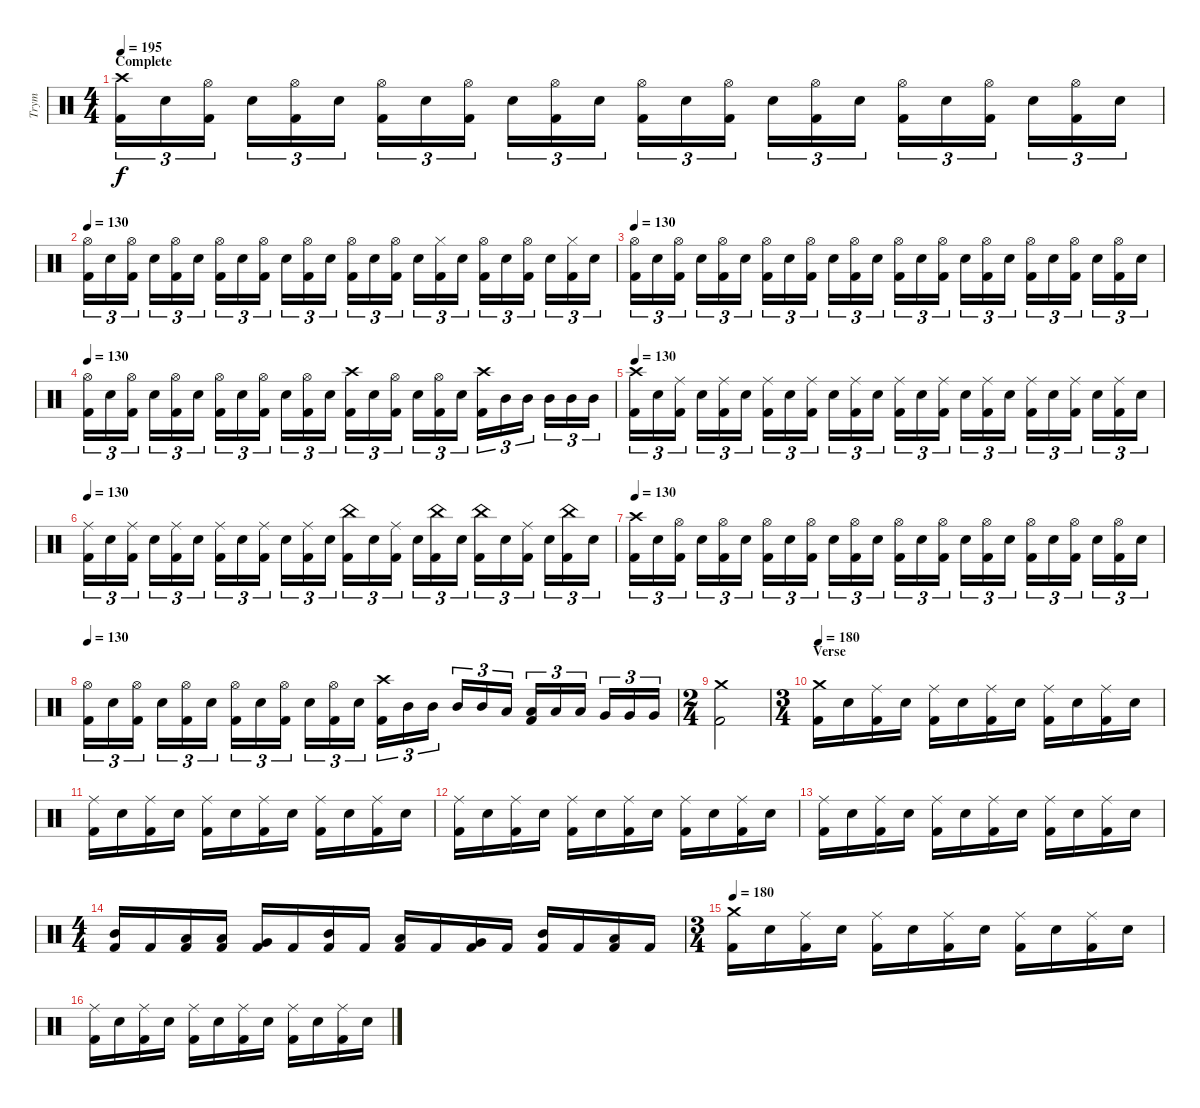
\track ("Trym" "Trym") {instrument percussion}
\staff {score}
\articulation defaults
\ts (4 4)
\section ("" "Complete")
\tempo 195
\tempo 130
\tempo 195
\clef neutral
\ks c
("Kick (hit) 2" "Crash high (hit)").16{tu (3 2) dy f} "Electric Snare (hit)".16{tu (3 2)} ("Kick (hit) 2" "Hi-Hat (open)").16{tu (3 2)} "Electric Snare (hit)".16{tu (3 2)} ("Kick (hit) 2" "Hi-Hat (open)").16{tu (3 2)} "Electric Snare (hit)".16{tu (3 2)} ("Kick (hit) 2" "Hi-Hat (open)").16{tu (3 2)} "Electric Snare (hit)".16{tu (3 2)} ("Kick (hit) 2" "Hi-Hat (open)").16{tu (3 2)} "Electric Snare (hit)".16{tu (3 2)} ("Kick (hit) 2" "Hi-Hat (open)").16{tu (3 2)} "Electric Snare (hit)".16{tu (3 2)} ("Kick (hit) 2" "Hi-Hat (open)").16{tu (3 2)} "Electric Snare (hit)".16{tu (3 2)} ("Kick (hit) 2" "Hi-Hat (open)").16{tu (3 2)} "Electric Snare (hit)".16{tu (3 2)} ("Kick (hit) 2" "Hi-Hat (open)").16{tu (3 2)} "Electric Snare (hit)".16{tu (3 2)} ("Kick (hit) 2" "Hi-Hat (open)").16{tu (3 2)} "Electric Snare (hit)".16{tu (3 2)} ("Kick (hit) 2" "Hi-Hat (open)").16{tu (3 2)} "Electric Snare (hit)".16{tu (3 2)} ("Kick (hit) 2" "Hi-Hat (open)").16{tu (3 2)} "Electric Snare (hit)".16{tu (3 2)} |
\tempo 130
("Kick (hit) 2" "Hi-Hat (open)").16{tu (3 2)} "Electric Snare (hit)".16{tu (3 2)} ("Kick (hit) 2" "Hi-Hat (open)").16{tu (3 2)} "Electric Snare (hit)".16{tu (3 2)} ("Kick (hit) 2" "Hi-Hat (open)").16{tu (3 2)} "Electric Snare (hit)".16{tu (3 2)} ("Kick (hit) 2" "Hi-Hat (open)").16{tu (3 2)} "Electric Snare (hit)".16{tu (3 2)} ("Kick (hit) 2" "Hi-Hat (open)").16{tu (3 2)} "Electric Snare (hit)".16{tu (3 2)} ("Kick (hit) 2" "Hi-Hat (open)").16{tu (3 2)} "Electric Snare (hit)".16{tu (3 2)} ("Kick (hit) 2" "Hi-Hat (open)").16{tu (3 2)} "Electric Snare (hit)".16{tu (3 2)} ("Kick (hit) 2" "Hi-Hat (open)").16{tu (3 2)} "Electric Snare (hit)".16{tu (3 2)} ("Kick (hit) 2" "Hi-Hat (closed)").16{tu (3 2)} "Electric Snare (hit)".16{tu (3 2)} ("Kick (hit) 2" "Hi-Hat (open)").16{tu (3 2)} "Electric Snare (hit)".16{tu (3 2)} ("Kick (hit) 2" "Hi-Hat (open)").16{tu (3 2)} "Electric Snare (hit)".16{tu (3 2)} ("Kick (hit) 2" "Hi-Hat (closed)").16{tu (3 2)} "Electric Snare (hit)".16{tu (3 2)} |
\tempo 130
("Kick (hit) 2" "Hi-Hat (open)").16{tu (3 2)} "Electric Snare (hit)".16{tu (3 2)} ("Kick (hit) 2" "Hi-Hat (open)").16{tu (3 2)} "Electric Snare (hit)".16{tu (3 2)} ("Kick (hit) 2" "Hi-Hat (open)").16{tu (3 2)} "Electric Snare (hit)".16{tu (3 2)} ("Kick (hit) 2" "Hi-Hat (open)").16{tu (3 2)} "Electric Snare (hit)".16{tu (3 2)} ("Kick (hit) 2" "Hi-Hat (open)").16{tu (3 2)} "Electric Snare (hit)".16{tu (3 2)} ("Kick (hit) 2" "Hi-Hat (open)").16{tu (3 2)} "Electric Snare (hit)".16{tu (3 2)} ("Kick (hit) 2" "Hi-Hat (open)").16{tu (3 2)} "Electric Snare (hit)".16{tu (3 2)} ("Kick (hit) 2" "Hi-Hat (open)").16{tu (3 2)} "Electric Snare (hit)".16{tu (3 2)} ("Kick (hit) 2" "Hi-Hat (open)").16{tu (3 2)} "Electric Snare (hit)".16{tu (3 2)} ("Kick (hit) 2" "Hi-Hat (open)").16{tu (3 2)} "Electric Snare (hit)".16{tu (3 2)} ("Kick (hit) 2" "Hi-Hat (open)").16{tu (3 2)} "Electric Snare (hit)".16{tu (3 2)} ("Kick (hit) 2" "Hi-Hat (open)").16{tu (3 2)} "Electric Snare (hit)".16{tu (3 2)} |
\tempo 130
("Kick (hit) 2" "Hi-Hat (open)").16{tu (3 2)} "Electric Snare (hit)".16{tu (3 2)} ("Kick (hit) 2" "Hi-Hat (open)").16{tu (3 2)} "Electric Snare (hit)".16{tu (3 2)} ("Kick (hit) 2" "Hi-Hat (open)").16{tu (3 2)} "Electric Snare (hit)".16{tu (3 2)} ("Kick (hit) 2" "Hi-Hat (open)").16{tu (3 2)} "Electric Snare (hit)".16{tu (3 2)} ("Kick (hit) 2" "Hi-Hat (open)").16{tu (3 2)} "Electric Snare (hit)".16{tu (3 2)} ("Kick (hit) 2" "Hi-Hat (open)").16{tu (3 2)} "Electric Snare (hit)".16{tu (3 2)} ("Kick (hit) 2" "Crash high (hit)").16{tu (3 2)} "Electric Snare (hit)".16{tu (3 2)} ("Kick (hit) 2" "Hi-Hat (open)").16{tu (3 2)} "Electric Snare (hit)".16{tu (3 2)} ("Kick (hit) 2" "Hi-Hat (open)").16{tu (3 2)} "Electric Snare (hit)".16{tu (3 2)} ("Kick (hit) 2" "Crash high (hit)").16{tu (3 2)} "Mid Tom (hit)".16{tu (3 2)} "Mid Tom (hit)".16{tu (3 2)} "Mid Tom (hit)".16{tu (3 2)} "Mid Tom (hit)".16{tu (3 2)} "Mid Tom (hit)".16{tu (3 2)} |
\tempo 130
("Kick (hit) 2" "Crash high (hit)").16{tu (3 2)} "Electric Snare (hit)".16{tu (3 2)} ("Kick (hit) 2" "Ride (middle)").16{tu (3 2)} "Electric Snare (hit)".16{tu (3 2)} ("Kick (hit) 2" "Ride (middle)").16{tu (3 2)} "Electric Snare (hit)".16{tu (3 2)} ("Kick (hit) 2" "Ride (middle)").16{tu (3 2)} "Electric Snare (hit)".16{tu (3 2)} ("Kick (hit) 2" "Ride (middle)").16{tu (3 2)} "Electric Snare (hit)".16{tu (3 2)} ("Kick (hit) 2" "Ride (middle)").16{tu (3 2)} "Electric Snare (hit)".16{tu (3 2)} ("Kick (hit) 2" "Ride (middle)").16{tu (3 2)} "Electric Snare (hit)".16{tu (3 2)} ("Kick (hit) 2" "Ride (middle)").16{tu (3 2)} "Electric Snare (hit)".16{tu (3 2)} ("Kick (hit) 2" "Ride (middle)").16{tu (3 2)} "Electric Snare (hit)".16{tu (3 2)} ("Kick (hit) 2" "Ride (middle)").16{tu (3 2)} "Electric Snare (hit)".16{tu (3 2)} ("Kick (hit) 2" "Ride (middle)").16{tu (3 2)} "Electric Snare (hit)".16{tu (3 2)} ("Kick (hit) 2" "Ride (middle)").16{tu (3 2)} "Electric Snare (hit)".16{tu (3 2)} |
\tempo 130
("Kick (hit) 2" "Ride (middle)").16{tu (3 2)} "Electric Snare (hit)".16{tu (3 2)} ("Kick (hit) 2" "Ride (middle)").16{tu (3 2)} "Electric Snare (hit)".16{tu (3 2)} ("Kick (hit) 2" "Ride (middle)").16{tu (3 2)} "Electric Snare (hit)".16{tu (3 2)} ("Kick (hit) 2" "Ride (middle)").16{tu (3 2)} "Electric Snare (hit)".16{tu (3 2)} ("Kick (hit) 2" "Ride (middle)").16{tu (3 2)} "Electric Snare (hit)".16{tu (3 2)} ("Kick (hit) 2" "Ride (middle)").16{tu (3 2)} "Electric Snare (hit)".16{tu (3 2)} ("Kick (hit) 2" "China (hit)").16{tu (3 2)} "Electric Snare (hit)".16{tu (3 2)} ("Kick (hit) 2" "Ride (middle)").16{tu (3 2)} "Electric Snare (hit)".16{tu (3 2)} ("Kick (hit) 2" "China (hit)").16{tu (3 2)} "Electric Snare (hit)".16{tu (3 2)} ("Kick (hit) 2" "China (hit)").16{tu (3 2)} "Electric Snare (hit)".16{tu (3 2)} ("Kick (hit) 2" "Ride (middle)").16{tu (3 2)} "Electric Snare (hit)".16{tu (3 2)} ("Kick (hit) 2" "China (hit)").16{tu (3 2)} "Electric Snare (hit)".16{tu (3 2)} |
\tempo 130
("Kick (hit) 2" "Crash high (hit)").16{tu (3 2)} "Electric Snare (hit)".16{tu (3 2)} ("Kick (hit) 2" "Hi-Hat (open)").16{tu (3 2)} "Electric Snare (hit)".16{tu (3 2)} ("Kick (hit) 2" "Hi-Hat (open)").16{tu (3 2)} "Electric Snare (hit)".16{tu (3 2)} ("Kick (hit) 2" "Hi-Hat (open)").16{tu (3 2)} "Electric Snare (hit)".16{tu (3 2)} ("Kick (hit) 2" "Hi-Hat (open)").16{tu (3 2)} "Electric Snare (hit)".16{tu (3 2)} ("Kick (hit) 2" "Hi-Hat (open)").16{tu (3 2)} "Electric Snare (hit)".16{tu (3 2)} ("Kick (hit) 2" "Hi-Hat (open)").16{tu (3 2)} "Electric Snare (hit)".16{tu (3 2)} ("Kick (hit) 2" "Hi-Hat (open)").16{tu (3 2)} "Electric Snare (hit)".16{tu (3 2)} ("Kick (hit) 2" "Hi-Hat (open)").16{tu (3 2)} "Electric Snare (hit)".16{tu (3 2)} ("Kick (hit) 2" "Hi-Hat (open)").16{tu (3 2)} "Electric Snare (hit)".16{tu (3 2)} ("Kick (hit) 2" "Hi-Hat (open)").16{tu (3 2)} "Electric Snare (hit)".16{tu (3 2)} ("Kick (hit) 2" "Hi-Hat (open)").16{tu (3 2)} "Electric Snare (hit)".16{tu (3 2)} |
\tempo 130
("Kick (hit) 2" "Hi-Hat (open)").16{tu (3 2)} "Electric Snare (hit)".16{tu (3 2)} ("Kick (hit) 2" "Hi-Hat (open)").16{tu (3 2)} "Electric Snare (hit)".16{tu (3 2)} ("Kick (hit) 2" "Hi-Hat (open)").16{tu (3 2)} "Electric Snare (hit)".16{tu (3 2)} ("Kick (hit) 2" "Hi-Hat (open)").16{tu (3 2)} "Electric Snare (hit)".16{tu (3 2)} ("Kick (hit) 2" "Hi-Hat (open)").16{tu (3 2)} "Electric Snare (hit)".16{tu (3 2)} ("Kick (hit) 2" "Hi-Hat (open)").16{tu (3 2)} "Electric Snare (hit)".16{tu (3 2)} ("Kick (hit) 2" "Crash high (hit)").16{tu (3 2)} "Mid Tom (hit)".16{tu (3 2)} "Mid Tom (hit)".16{tu (3 2)} "Mid Tom (hit)".16{tu (3 2)} "Mid Tom (hit)".16{tu (3 2)} "Low Tom (hit)".16{tu (3 2)} ("Kick (hit) 2" "Low Tom (hit)").16{tu (3 2)} "Low Tom (hit)".16{tu (3 2)} "Low Tom (hit)".16{tu (3 2)} "Very Low Tom (hit)".16{tu (3 2)} "Very Low Tom (hit)".16{tu (3 2)} "Very Low Tom (hit)".16{tu (3 2)} |
\ts (2 4)
("Kick (hit) 2" "Crash medium (hit)").2 |
\ts (3 4)
\section ("" "Verse")
\tempo 180
("Kick (hit) 2" "Crash medium (hit)").16 "Electric Snare (hit)".16 ("Kick (hit) 2" "Ride (middle)").16 "Electric Snare (hit)".16 ("Kick (hit) 2" "Ride (middle)").16 "Electric Snare (hit)".16 ("Kick (hit) 2" "Ride (middle)").16 "Electric Snare (hit)".16 ("Kick (hit) 2" "Ride (middle)").16 "Electric Snare (hit)".16 ("Kick (hit) 2" "Ride (middle)").16 "Electric Snare (hit)".16 |
("Kick (hit) 2" "Ride (middle)").16 "Electric Snare (hit)".16 ("Kick (hit) 2" "Ride (middle)").16 "Electric Snare (hit)".16 ("Kick (hit) 2" "Ride (middle)").16 "Electric Snare (hit)".16 ("Kick (hit) 2" "Ride (middle)").16 "Electric Snare (hit)".16 ("Kick (hit) 2" "Ride (middle)").16 "Electric Snare (hit)".16 ("Kick (hit) 2" "Ride (middle)").16 "Electric Snare (hit)".16 |
("Kick (hit) 2" "Ride (middle)").16 "Electric Snare (hit)".16 ("Kick (hit) 2" "Ride (middle)").16 "Electric Snare (hit)".16 ("Kick (hit) 2" "Ride (middle)").16 "Electric Snare (hit)".16 ("Kick (hit) 2" "Ride (middle)").16 "Electric Snare (hit)".16 ("Kick (hit) 2" "Ride (middle)").16 "Electric Snare (hit)".16 ("Kick (hit) 2" "Ride (middle)").16 "Electric Snare (hit)".16 |
("Kick (hit) 2" "Ride (middle)").16 "Electric Snare (hit)".16 ("Kick (hit) 2" "Ride (middle)").16 "Electric Snare (hit)".16 ("Kick (hit) 2" "Ride (middle)").16 "Electric Snare (hit)".16 ("Kick (hit) 2" "Ride (middle)").16 "Electric Snare (hit)".16 ("Kick (hit) 2" "Ride (middle)").16 "Electric Snare (hit)".16 ("Kick (hit) 2" "Ride (middle)").16 "Electric Snare (hit)".16 |
\ts (4 4)
("Kick (hit) 2" "Mid Tom (hit)").16 "Kick (hit) 2".16 ("Kick (hit) 2" "Low Tom (hit)").16 ("Kick (hit) 2" "Low Tom (hit)").16 ("Kick (hit) 2" "Very Low Tom (hit)").16 "Kick (hit) 2".16 ("Kick (hit) 2" "Mid Tom (hit)").16 "Kick (hit) 2".16 ("Kick (hit) 2" "Low Tom (hit)").16 "Kick (hit) 2".16 ("Kick (hit) 2" "Very Low Tom (hit)").16 "Kick (hit) 2".16 ("Kick (hit) 2" "Mid Tom (hit)").16 "Kick (hit) 2".16 ("Kick (hit) 2" "Low Tom (hit)").16 "Kick (hit) 2".16 |
\ts (3 4)
\tempo 180
("Kick (hit) 2" "Crash medium (hit)").16 "Electric Snare (hit)".16 ("Kick (hit) 2" "Ride (middle)").16 "Electric Snare (hit)".16 ("Kick (hit) 2" "Ride (middle)").16 "Electric Snare (hit)".16 ("Kick (hit) 2" "Ride (middle)").16 "Electric Snare (hit)".16 ("Kick (hit) 2" "Ride (middle)").16 "Electric Snare (hit)".16 ("Kick (hit) 2" "Ride (middle)").16 "Electric Snare (hit)".16 |
("Kick (hit) 2" "Ride (middle)").16 "Electric Snare (hit)".16 ("Kick (hit) 2" "Ride (middle)").16 "Electric Snare (hit)".16 ("Kick (hit) 2" "Ride (middle)").16 "Electric Snare (hit)".16 ("Kick (hit) 2" "Ride (middle)").16 "Electric Snare (hit)".16 ("Kick (hit) 2" "Ride (middle)").16 "Electric Snare (hit)".16 ("Kick (hit) 2" "Ride (middle)").16 "Electric Snare (hit)".16
